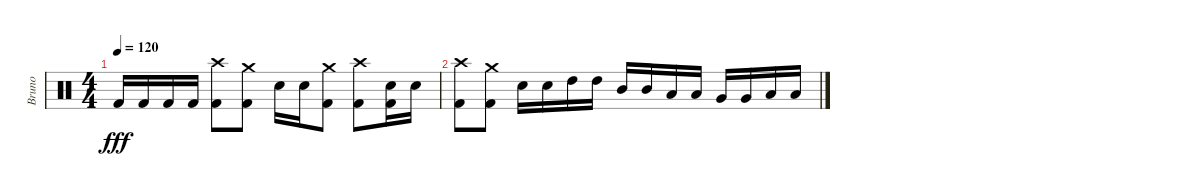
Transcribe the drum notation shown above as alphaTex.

\track ("Bruno" "Bruno") {instrument percussion}
\staff {score}
\articulation defaults
\ts (4 4)
\tempo 120
\clef neutral
\ks c "Kick (hit) 2".16{dy fff} "Kick (hit) 2".16 "Kick (hit) 2".16 "Kick (hit) 2".16
("Crash high (hit)" "Kick (hit) 2").8 ("Crash medium (hit)" "Kick (hit) 2").8 "Snare (hit) 2".16 "Snare (hit) 2".16 ("Crash medium (hit)" "Kick (hit) 2").8 ("Crash high (hit)" "Kick (hit) 2").8 ("Kick (hit) 2" "Snare (hit) 2").16 "Snare (hit) 2".16 |
("Crash high (hit)" "Kick (hit) 2").8 ("Crash medium (hit)" "Kick (hit) 2").8 "Snare (hit) 2".16 "Snare (hit) 2".16 "High Tom (hit)".16 "High Tom (hit)".16 "Mid Tom (hit)".16 "Mid Tom (hit)".16 "Low Tom (hit)".16 "Low Tom (hit)".16 "Very Low Tom (hit)".16 "Very Low Tom (hit)".16 "Low Floor Tom (hit)".16 "Low Floor Tom (hit)".16
